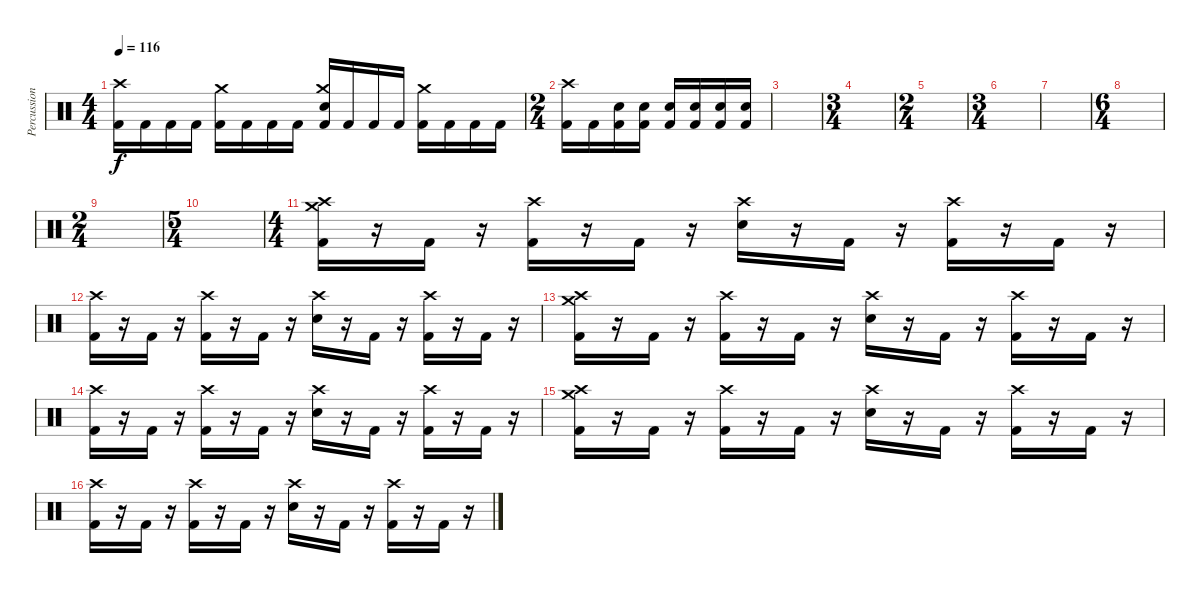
\track ("Percussion" "Percussion") {instrument percussion}
\staff {score}
\articulation defaults
\ts (4 4)
\tempo 116
\clef neutral
\ks c
("Crash high (hit)" "Kick (hit) 2").16{dy f} "Kick (hit) 2".16 "Kick (hit) 2".16 "Kick (hit) 2".16 ("Crash medium (hit)" "Kick (hit) 2").16 "Kick (hit) 2".16 "Kick (hit) 2".16 "Kick (hit) 2".16 ("Crash medium (hit)" "Electric Snare (hit)" "Kick (hit) 2").16 "Kick (hit) 2".16 "Kick (hit) 2".16 "Kick (hit) 2".16 ("Crash medium (hit)" "Kick (hit) 2").16 "Kick (hit) 2".16 "Kick (hit) 2".16 "Kick (hit) 2".16 |
\ts (2 4)
("Crash high (hit)" "Kick (hit) 2").16 "Kick (hit) 2".16 ("Electric Snare (hit)" "Kick (hit) 2").16 ("Electric Snare (hit)" "Kick (hit) 2").16 ("Electric Snare (hit)" "Kick (hit) 2").16 ("Electric Snare (hit)" "Kick (hit) 2").16 ("Electric Snare (hit)" "Kick (hit) 2").16 ("Electric Snare (hit)" "Kick (hit) 2").16 |
|
\ts (3 4)
|
\ts (2 4)
|
\ts (3 4)
|
|
\ts (6 4)
|
\ts (2 4)
|
\ts (5 4)
|
\ts (4 4)
("Crash high (hit)" "Crash medium (hit)" "Kick (hit) 2").16 r.16 "Kick (hit) 2".16 r.16 ("Crash high (hit)" "Kick (hit) 2").16 r.16 "Kick (hit) 2".16 r.16 ("Crash high (hit)" "Electric Snare (hit)").16 r.16 "Kick (hit) 2".16 r.16 ("Crash high (hit)" "Kick (hit) 2").16 r.16 "Kick (hit) 2".16 r.16 |
("Crash high (hit)" "Kick (hit) 2").16 r.16 "Kick (hit) 2".16 r.16 ("Crash high (hit)" "Kick (hit) 2").16 r.16 "Kick (hit) 2".16 r.16 ("Crash high (hit)" "Electric Snare (hit)").16 r.16 "Kick (hit) 2".16 r.16 ("Crash high (hit)" "Kick (hit) 2").16 r.16 "Kick (hit) 2".16 r.16 |
("Crash high (hit)" "Crash medium (hit)" "Kick (hit) 2").16 r.16 "Kick (hit) 2".16 r.16 ("Crash high (hit)" "Kick (hit) 2").16 r.16 "Kick (hit) 2".16 r.16 ("Crash high (hit)" "Electric Snare (hit)").16 r.16 "Kick (hit) 2".16 r.16 ("Crash high (hit)" "Kick (hit) 2").16 r.16 "Kick (hit) 2".16 r.16 |
("Crash high (hit)" "Kick (hit) 2").16 r.16 "Kick (hit) 2".16 r.16 ("Crash high (hit)" "Kick (hit) 2").16 r.16 "Kick (hit) 2".16 r.16 ("Crash high (hit)" "Electric Snare (hit)").16 r.16 "Kick (hit) 2".16 r.16 ("Crash high (hit)" "Kick (hit) 2").16 r.16 "Kick (hit) 2".16 r.16 |
("Crash high (hit)" "Crash medium (hit)" "Kick (hit) 2").16 r.16 "Kick (hit) 2".16 r.16 ("Crash high (hit)" "Kick (hit) 2").16 r.16 "Kick (hit) 2".16 r.16 ("Crash high (hit)" "Electric Snare (hit)").16 r.16 "Kick (hit) 2".16 r.16 ("Crash high (hit)" "Kick (hit) 2").16 r.16 "Kick (hit) 2".16 r.16 |
("Crash high (hit)" "Kick (hit) 2").16 r.16 "Kick (hit) 2".16 r.16 ("Crash high (hit)" "Kick (hit) 2").16 r.16 "Kick (hit) 2".16 r.16 ("Crash high (hit)" "Electric Snare (hit)").16 r.16 "Kick (hit) 2".16 r.16 ("Crash high (hit)" "Kick (hit) 2").16 r.16 "Kick (hit) 2".16 r.16
